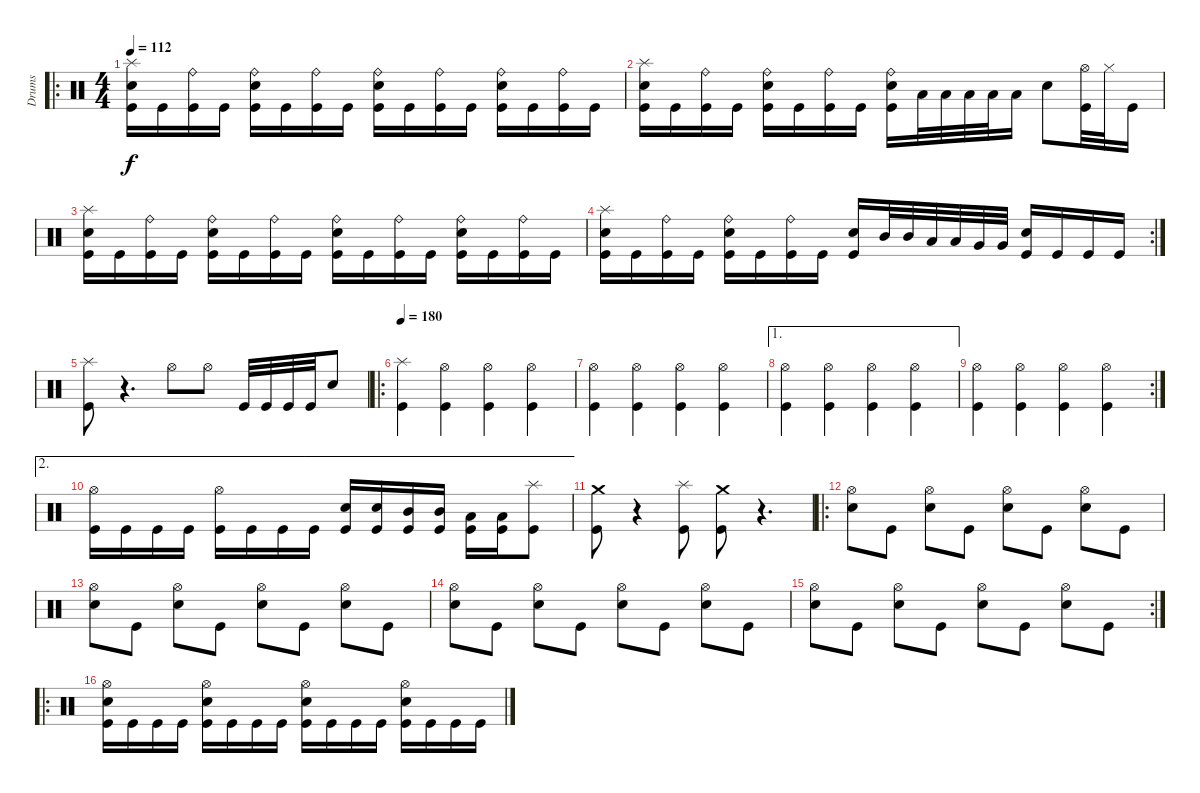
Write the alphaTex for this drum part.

\track ("Drums" "Drums") {instrument percussion}
\staff {score}
\articulation defaults
\ro
\ts (4 4)
\tempo 112
\clef neutral
\ks c
("Kick (hit)" "Electric Snare (hit)" "Splash (hit)").16{dy f} "Kick (hit)".16 ("Kick (hit)" "Ride (bell)").16 "Kick (hit)".16 ("Kick (hit)" "Electric Snare (hit)" "Ride (bell)").16 "Kick (hit)".16 ("Kick (hit)" "Ride (bell)").16 "Kick (hit)".16 ("Kick (hit)" "Electric Snare (hit)" "Ride (bell)").16 "Kick (hit)".16 ("Kick (hit)" "Ride (bell)").16 "Kick (hit)".16 ("Kick (hit)" "Electric Snare (hit)" "Ride (bell)").16 "Kick (hit)".16 ("Kick (hit)" "Ride (bell)").16 "Kick (hit)".16 |
("Kick (hit)" "Electric Snare (hit)" "Splash (hit)").16 "Kick (hit)".16 ("Kick (hit)" "Ride (bell)").16 "Kick (hit)".16 ("Kick (hit)" "Electric Snare (hit)" "Ride (bell)").16 "Kick (hit)".16 ("Kick (hit)" "Ride (bell)").16 "Kick (hit)".16 ("Kick (hit)" "Electric Snare (hit)" "Ride (bell)").16 "Low Tom (hit)".32 "Low Tom (hit)".32 "Low Tom (hit)".32 "Low Tom (hit)".32 "Low Tom (hit)".16 "Electric Snare (hit)".8 ("Kick (hit)" "Hi-Hat (open)").32 "Hi-Hat (closed)".32 "Kick (hit)".16 |
("Kick (hit)" "Electric Snare (hit)" "Splash (hit)").16 "Kick (hit)".16 ("Kick (hit)" "Ride (bell)").16 "Kick (hit)".16 ("Kick (hit)" "Electric Snare (hit)" "Ride (bell)").16 "Kick (hit)".16 ("Kick (hit)" "Ride (bell)").16 "Kick (hit)".16 ("Kick (hit)" "Electric Snare (hit)" "Ride (bell)").16 "Kick (hit)".16 ("Kick (hit)" "Ride (bell)").16 "Kick (hit)".16 ("Kick (hit)" "Electric Snare (hit)" "Ride (bell)").16 "Kick (hit)".16 ("Kick (hit)" "Ride (bell)").16 "Kick (hit)".16 |
\rc 2
("Kick (hit)" "Electric Snare (hit)" "Splash (hit)").16 "Kick (hit)".16 ("Kick (hit)" "Ride (bell)").16 "Kick (hit)".16 ("Kick (hit)" "Electric Snare (hit)" "Ride (bell)").16 "Kick (hit)".16 ("Kick (hit)" "Ride (bell)").16 "Kick (hit)".16 ("Kick (hit)" "Electric Snare (hit)").16 "Mid Tom (hit)".32 "Mid Tom (hit)".32 "Low Tom (hit)".32 "Low Tom (hit)".32 "Very Low Tom (hit)".32 "Very Low Tom (hit)".32 ("Kick (hit)" "Electric Snare (hit)").16 "Kick (hit)".16 "Kick (hit)".16 "Kick (hit)".16 |
("Kick (hit)" "Splash (hit)").8 r.4{d} "Hi-Hat (open)".8 "Hi-Hat (open)".8 "Kick (hit)".32 "Kick (hit)".32 "Kick (hit)".32 "Kick (hit)".32 "Electric Snare (hit)".8 |
\ro
\tempo 180
("Kick (hit)" "Splash (hit)").4 ("Kick (hit)" "Hi-Hat (open)").4 ("Kick (hit)" "Hi-Hat (open)").4 ("Kick (hit)" "Hi-Hat (open)").4 |
("Kick (hit)" "Hi-Hat (open)").4 ("Kick (hit)" "Hi-Hat (open)").4 ("Kick (hit)" "Hi-Hat (open)").4 ("Kick (hit)" "Hi-Hat (open)").4 |
\ae 1
("Kick (hit)" "Hi-Hat (open)").4 ("Kick (hit)" "Hi-Hat (open)").4 ("Kick (hit)" "Hi-Hat (open)").4 ("Kick (hit)" "Hi-Hat (open)").4 |
\rc 2
("Kick (hit)" "Hi-Hat (open)").4 ("Kick (hit)" "Hi-Hat (open)").4 ("Kick (hit)" "Hi-Hat (open)").4 ("Kick (hit)" "Hi-Hat (open)").4 |
\ae 2
("Kick (hit)" "Hi-Hat (open)").16 "Kick (hit)".16 "Kick (hit)".16 "Kick (hit)".16 ("Kick (hit)" "Hi-Hat (open)").16 "Kick (hit)".16 "Kick (hit)".16 "Kick (hit)".16 ("Kick (hit)" "Electric Snare (hit)").16 ("Kick (hit)" "Electric Snare (hit)").16 ("Kick (hit)" "Mid Tom (hit)").16 ("Kick (hit)" "Mid Tom (hit)").16 ("Kick (hit)" "Low Tom (hit)").16 ("Kick (hit)" "Low Tom (hit)").16 ("Kick (hit)" "Splash (hit)").8 |
("Kick (hit)" "Crash medium (hit)").8 r.4 ("Kick (hit)" "Splash (hit)").8 ("Kick (hit)" "Crash medium (hit)").8 r.4{d} |
\ro
("Electric Snare (hit)" "Hi-Hat (open)").8 "Kick (hit)".8 ("Electric Snare (hit)" "Hi-Hat (open)").8 "Kick (hit)".8 ("Electric Snare (hit)" "Hi-Hat (open)").8 "Kick (hit)".8 ("Electric Snare (hit)" "Hi-Hat (open)").8 "Kick (hit)".8 |
("Electric Snare (hit)" "Hi-Hat (open)").8 "Kick (hit)".8 ("Electric Snare (hit)" "Hi-Hat (open)").8 "Kick (hit)".8 ("Electric Snare (hit)" "Hi-Hat (open)").8 "Kick (hit)".8 ("Electric Snare (hit)" "Hi-Hat (open)").8 "Kick (hit)".8 |
("Electric Snare (hit)" "Hi-Hat (open)").8 "Kick (hit)".8 ("Electric Snare (hit)" "Hi-Hat (open)").8 "Kick (hit)".8 ("Electric Snare (hit)" "Hi-Hat (open)").8 "Kick (hit)".8 ("Electric Snare (hit)" "Hi-Hat (open)").8 "Kick (hit)".8 |
\rc 2
("Electric Snare (hit)" "Hi-Hat (open)").8 "Kick (hit)".8 ("Electric Snare (hit)" "Hi-Hat (open)").8 "Kick (hit)".8 ("Electric Snare (hit)" "Hi-Hat (open)").8 "Kick (hit)".8 ("Electric Snare (hit)" "Hi-Hat (open)").8 "Kick (hit)".8 |
\ro
("Kick (hit)" "Electric Snare (hit)" "Hi-Hat (open)").16 "Kick (hit)".16 "Kick (hit)".16 "Kick (hit)".16 ("Kick (hit)" "Electric Snare (hit)" "Hi-Hat (open)").16 "Kick (hit)".16 "Kick (hit)".16 "Kick (hit)".16 ("Kick (hit)" "Electric Snare (hit)" "Hi-Hat (open)").16 "Kick (hit)".16 "Kick (hit)".16 "Kick (hit)".16 ("Kick (hit)" "Electric Snare (hit)" "Hi-Hat (open)").16 "Kick (hit)".16 "Kick (hit)".16 "Kick (hit)".16
